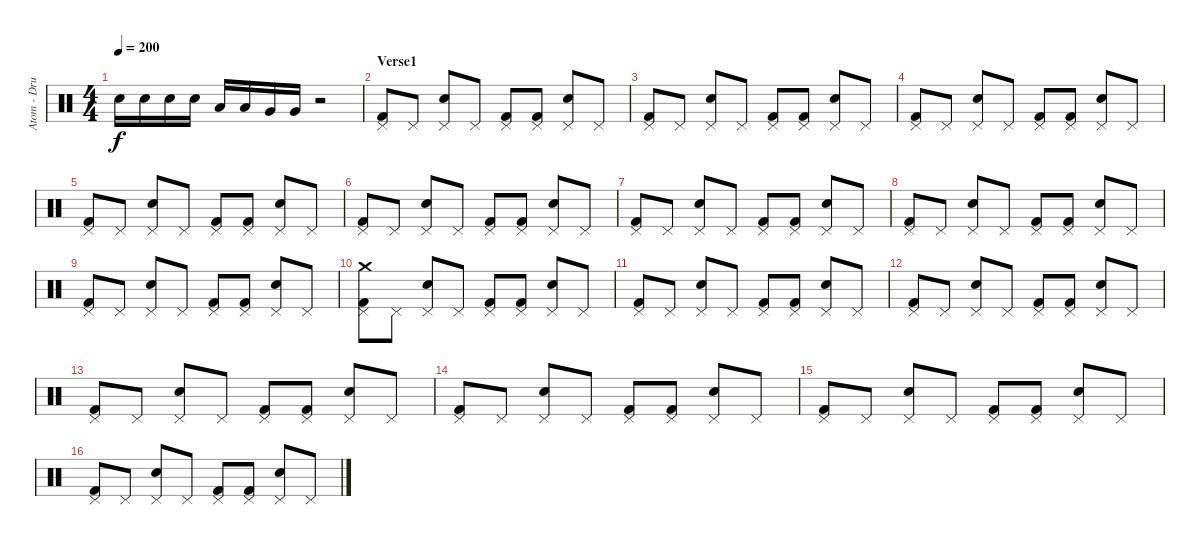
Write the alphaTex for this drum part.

\track ("Atom - Drums" "Atom - Dru") {instrument percussion}
\staff {score}
\articulation defaults
\ts (4 4)
\tempo 200
\clef neutral
\ks c "Electric Snare (hit)".16{dy f} "Electric Snare (hit)".16 "Electric Snare (hit)".16 "Electric Snare (hit)".16 "Low Tom (hit)".16 "Low Tom (hit)".16 "Very Low Tom (hit)".16 "Very Low Tom (hit)".16
r.2 |
\section ("" "Verse1")
("Pedal Hi-Hat (hit)" "Kick (hit) 2").8 "Pedal Hi-Hat (hit)".8 ("Pedal Hi-Hat (hit)" "Electric Snare (hit)").8 "Pedal Hi-Hat (hit)".8 ("Pedal Hi-Hat (hit)" "Kick (hit) 2").8 ("Pedal Hi-Hat (hit)" "Kick (hit) 2").8 ("Pedal Hi-Hat (hit)" "Electric Snare (hit)").8 "Pedal Hi-Hat (hit)".8 |
("Pedal Hi-Hat (hit)" "Kick (hit) 2").8 "Pedal Hi-Hat (hit)".8 ("Pedal Hi-Hat (hit)" "Electric Snare (hit)").8 "Pedal Hi-Hat (hit)".8 ("Pedal Hi-Hat (hit)" "Kick (hit) 2").8 ("Pedal Hi-Hat (hit)" "Kick (hit) 2").8 ("Pedal Hi-Hat (hit)" "Electric Snare (hit)").8 "Pedal Hi-Hat (hit)".8 |
("Pedal Hi-Hat (hit)" "Kick (hit) 2").8 "Pedal Hi-Hat (hit)".8 ("Pedal Hi-Hat (hit)" "Electric Snare (hit)").8 "Pedal Hi-Hat (hit)".8 ("Pedal Hi-Hat (hit)" "Kick (hit) 2").8 ("Pedal Hi-Hat (hit)" "Kick (hit) 2").8 ("Pedal Hi-Hat (hit)" "Electric Snare (hit)").8 "Pedal Hi-Hat (hit)".8 |
("Pedal Hi-Hat (hit)" "Kick (hit) 2").8 "Pedal Hi-Hat (hit)".8 ("Pedal Hi-Hat (hit)" "Electric Snare (hit)").8 "Pedal Hi-Hat (hit)".8 ("Pedal Hi-Hat (hit)" "Kick (hit) 2").8 ("Pedal Hi-Hat (hit)" "Kick (hit) 2").8 ("Pedal Hi-Hat (hit)" "Electric Snare (hit)").8 "Pedal Hi-Hat (hit)".8 |
("Pedal Hi-Hat (hit)" "Kick (hit) 2").8 "Pedal Hi-Hat (hit)".8 ("Pedal Hi-Hat (hit)" "Electric Snare (hit)").8 "Pedal Hi-Hat (hit)".8 ("Pedal Hi-Hat (hit)" "Kick (hit) 2").8 ("Pedal Hi-Hat (hit)" "Kick (hit) 2").8 ("Pedal Hi-Hat (hit)" "Electric Snare (hit)").8 "Pedal Hi-Hat (hit)".8 |
("Pedal Hi-Hat (hit)" "Kick (hit) 2").8 "Pedal Hi-Hat (hit)".8 ("Pedal Hi-Hat (hit)" "Electric Snare (hit)").8 "Pedal Hi-Hat (hit)".8 ("Pedal Hi-Hat (hit)" "Kick (hit) 2").8 ("Pedal Hi-Hat (hit)" "Kick (hit) 2").8 ("Pedal Hi-Hat (hit)" "Electric Snare (hit)").8 "Pedal Hi-Hat (hit)".8 |
("Pedal Hi-Hat (hit)" "Kick (hit) 2").8 "Pedal Hi-Hat (hit)".8 ("Pedal Hi-Hat (hit)" "Electric Snare (hit)").8 "Pedal Hi-Hat (hit)".8 ("Pedal Hi-Hat (hit)" "Kick (hit) 2").8 ("Pedal Hi-Hat (hit)" "Kick (hit) 2").8 ("Pedal Hi-Hat (hit)" "Electric Snare (hit)").8 "Pedal Hi-Hat (hit)".8 |
("Pedal Hi-Hat (hit)" "Kick (hit) 2").8 "Pedal Hi-Hat (hit)".8 ("Pedal Hi-Hat (hit)" "Electric Snare (hit)").8 "Pedal Hi-Hat (hit)".8 ("Pedal Hi-Hat (hit)" "Kick (hit) 2").8 ("Pedal Hi-Hat (hit)" "Kick (hit) 2").8 ("Pedal Hi-Hat (hit)" "Electric Snare (hit)").8 "Pedal Hi-Hat (hit)".8 |
("Crash medium (hit)" "Pedal Hi-Hat (hit)" "Kick (hit) 2").8 "Pedal Hi-Hat (hit)".8 ("Pedal Hi-Hat (hit)" "Electric Snare (hit)").8 "Pedal Hi-Hat (hit)".8 ("Pedal Hi-Hat (hit)" "Kick (hit) 2").8 ("Pedal Hi-Hat (hit)" "Kick (hit) 2").8 ("Pedal Hi-Hat (hit)" "Electric Snare (hit)").8 "Pedal Hi-Hat (hit)".8 |
("Pedal Hi-Hat (hit)" "Kick (hit) 2").8 "Pedal Hi-Hat (hit)".8 ("Pedal Hi-Hat (hit)" "Electric Snare (hit)").8 "Pedal Hi-Hat (hit)".8 ("Pedal Hi-Hat (hit)" "Kick (hit) 2").8 ("Pedal Hi-Hat (hit)" "Kick (hit) 2").8 ("Pedal Hi-Hat (hit)" "Electric Snare (hit)").8 "Pedal Hi-Hat (hit)".8 |
("Pedal Hi-Hat (hit)" "Kick (hit) 2").8 "Pedal Hi-Hat (hit)".8 ("Pedal Hi-Hat (hit)" "Electric Snare (hit)").8 "Pedal Hi-Hat (hit)".8 ("Pedal Hi-Hat (hit)" "Kick (hit) 2").8 ("Pedal Hi-Hat (hit)" "Kick (hit) 2").8 ("Pedal Hi-Hat (hit)" "Electric Snare (hit)").8 "Pedal Hi-Hat (hit)".8 |
("Pedal Hi-Hat (hit)" "Kick (hit) 2").8 "Pedal Hi-Hat (hit)".8 ("Pedal Hi-Hat (hit)" "Electric Snare (hit)").8 "Pedal Hi-Hat (hit)".8 ("Pedal Hi-Hat (hit)" "Kick (hit) 2").8 ("Pedal Hi-Hat (hit)" "Kick (hit) 2").8 ("Pedal Hi-Hat (hit)" "Electric Snare (hit)").8 "Pedal Hi-Hat (hit)".8 |
("Pedal Hi-Hat (hit)" "Kick (hit) 2").8 "Pedal Hi-Hat (hit)".8 ("Pedal Hi-Hat (hit)" "Electric Snare (hit)").8 "Pedal Hi-Hat (hit)".8 ("Pedal Hi-Hat (hit)" "Kick (hit) 2").8 ("Pedal Hi-Hat (hit)" "Kick (hit) 2").8 ("Pedal Hi-Hat (hit)" "Electric Snare (hit)").8 "Pedal Hi-Hat (hit)".8 |
("Pedal Hi-Hat (hit)" "Kick (hit) 2").8 "Pedal Hi-Hat (hit)".8 ("Pedal Hi-Hat (hit)" "Electric Snare (hit)").8 "Pedal Hi-Hat (hit)".8 ("Pedal Hi-Hat (hit)" "Kick (hit) 2").8 ("Pedal Hi-Hat (hit)" "Kick (hit) 2").8 ("Pedal Hi-Hat (hit)" "Electric Snare (hit)").8 "Pedal Hi-Hat (hit)".8 |
("Pedal Hi-Hat (hit)" "Kick (hit) 2").8 "Pedal Hi-Hat (hit)".8 ("Pedal Hi-Hat (hit)" "Electric Snare (hit)").8 "Pedal Hi-Hat (hit)".8 ("Pedal Hi-Hat (hit)" "Kick (hit) 2").8 ("Pedal Hi-Hat (hit)" "Kick (hit) 2").8 ("Pedal Hi-Hat (hit)" "Electric Snare (hit)").8 "Pedal Hi-Hat (hit)".8
